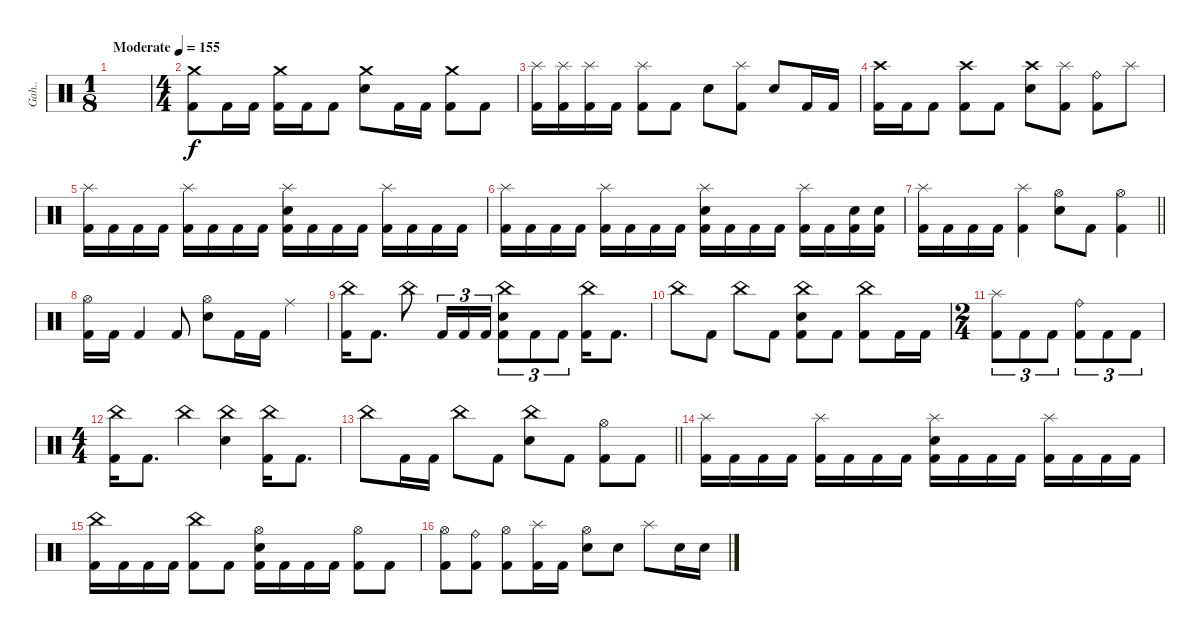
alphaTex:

\track ("Gah.." "Gah..") {instrument percussion}
\staff {score}
\articulation defaults
\ts (1 8)
\section ("" "")
\tempo (155 "Moderate")
\clef neutral
\ks c
|
\ts (4 4)
("Crash medium (hit)" "Kick (hit) 2").8 "Kick (hit) 2".16 "Kick (hit) 2".16 ("Crash medium (hit)" "Kick (hit) 2").16 "Kick (hit) 2".16 "Kick (hit) 2".8 ("Crash medium (hit)" "Electric Snare (hit)").8 "Kick (hit) 2".16 "Kick (hit) 2".16 ("Crash medium (hit)" "Kick (hit) 2").8 "Kick (hit) 2".8 |
("Splash (hit)" "Kick (hit) 2").16 ("Splash (hit)" "Kick (hit) 2").16 ("Splash (hit)" "Kick (hit) 2").16 "Kick (hit) 2".16 ("Splash (hit)" "Kick (hit) 2").8 "Kick (hit) 2".8 "Electric Snare (hit)".8 ("Splash (hit)" "Kick (hit) 2").8 "Electric Snare (hit)".8 "Kick (hit) 2".16 "Kick (hit) 2".16 |
("Crash high (hit)" "Kick (hit) 2").16 "Kick (hit) 2".16 "Kick (hit) 2".8 ("Crash high (hit)" "Kick (hit) 2").8 "Kick (hit) 2".8 ("Crash high (hit)" "Electric Snare (hit)").8 ("Splash (hit)" "Kick (hit) 2").8 ("Ride (bell)" "Kick (hit) 2").8 "Splash (hit)".8 |
("Splash (hit)" "Kick (hit) 2").16 "Kick (hit) 2".16 "Kick (hit) 2".16 "Kick (hit) 2".16 ("Splash (hit)" "Kick (hit) 2").16 "Kick (hit) 2".16 "Kick (hit) 2".16 "Kick (hit) 2".16 ("Splash (hit)" "Electric Snare (hit)" "Kick (hit) 2").16 "Kick (hit) 2".16 "Kick (hit) 2".16 "Kick (hit) 2".16 ("Splash (hit)" "Kick (hit) 2").16 "Kick (hit) 2".16 "Kick (hit) 2".16 "Kick (hit) 2".16 |
("Splash (hit)" "Kick (hit) 2").16 "Kick (hit) 2".16 "Kick (hit) 2".16 "Kick (hit) 2".16 ("Splash (hit)" "Kick (hit) 2").16 "Kick (hit) 2".16 "Kick (hit) 2".16 "Kick (hit) 2".16 ("Splash (hit)" "Electric Snare (hit)" "Kick (hit) 2").16 "Kick (hit) 2".16 "Kick (hit) 2".16 "Kick (hit) 2".16 ("Splash (hit)" "Kick (hit) 2").16 "Kick (hit) 2".16 ("Electric Snare (hit)" "Kick (hit) 2").16 ("Electric Snare (hit)" "Kick (hit) 2").16 |
\barLineRight lightlight
("Splash (hit)" "Kick (hit) 2").16 "Kick (hit) 2".16 "Kick (hit) 2".16 "Kick (hit) 2".16 ("Splash (hit)" "Kick (hit) 2").4 ("Hi-Hat (open)" "Electric Snare (hit)").8 "Kick (hit) 2".8 ("Hi-Hat (open)" "Kick (hit) 2").4 |
\section ("" "")
("Hi-Hat (open)" "Kick (hit) 2").16 "Kick (hit) 2".16 "Kick (hit) 2".4 "Kick (hit) 2".8 ("Hi-Hat (open)" "Electric Snare (hit)").8 "Kick (hit) 2".16 "Kick (hit) 2".16 "Ride (middle)".4 |
("China (hit)" "Kick (hit) 2").16 "Kick (hit) 2".8{d} "China (hit)".8 "Kick (hit) 2".16{tu (3 2)} "Kick (hit) 2".16{tu (3 2)} "Kick (hit) 2".16{tu (3 2)} ("China (hit)" "Electric Snare (hit)" "Kick (hit) 2").8{tu (3 2)} "Kick (hit) 2".8{tu (3 2)} "Kick (hit) 2".8{tu (3 2)} ("China (hit)" "Kick (hit) 2").16 "Kick (hit) 2".8{d} |
"China (hit)".8 "Kick (hit) 2".8 "China (hit)".8 "Kick (hit) 2".8 ("China (hit)" "Electric Snare (hit)" "Kick (hit) 2").8 "Kick (hit) 2".8 ("China (hit)" "Kick (hit) 2").8 "Kick (hit) 2".16 "Kick (hit) 2".16 |
\ts (2 4)
("Splash (hit)" "Kick (hit) 2").8{tu (3 2)} "Kick (hit) 2".8{tu (3 2)} "Kick (hit) 2".8{tu (3 2)} ("Ride (bell)" "Kick (hit) 2").8{tu (3 2)} "Kick (hit) 2".8{tu (3 2)} "Kick (hit) 2".8{tu (3 2)} |
\ts (4 4)
("China (hit)" "Kick (hit) 2").16 "Kick (hit) 2".8{d} "China (hit)".4 ("China (hit)" "Electric Snare (hit)").4 ("China (hit)" "Kick (hit) 2").16 "Kick (hit) 2".8{d} |
\barLineRight lightlight "China (hit)".8 "Kick (hit) 2".16 "Kick (hit) 2".16 "China (hit)".8 "Kick (hit) 2".8
("China (hit)" "Electric Snare (hit)").8 "Kick (hit) 2".8 ("Hi-Hat (open)" "Kick (hit) 2").8 "Kick (hit) 2".8 |
\section ("" "")
("Splash (hit)" "Kick (hit) 2").16 "Kick (hit) 2".16 "Kick (hit) 2".16 "Kick (hit) 2".16 ("Splash (hit)" "Kick (hit) 2").16 "Kick (hit) 2".16 "Kick (hit) 2".16 "Kick (hit) 2".16 ("Splash (hit)" "Electric Snare (hit)" "Kick (hit) 2").16 "Kick (hit) 2".16 "Kick (hit) 2".16 "Kick (hit) 2".16 ("Splash (hit)" "Kick (hit) 2").16 "Kick (hit) 2".16 "Kick (hit) 2".16 "Kick (hit) 2".16 |
("China (hit)" "Kick (hit) 2").16 "Kick (hit) 2".16 "Kick (hit) 2".16 "Kick (hit) 2".16 ("China (hit)" "Kick (hit) 2").8 "Kick (hit) 2".8 ("Hi-Hat (open)" "Electric Snare (hit)" "Kick (hit) 2").16 "Kick (hit) 2".16 "Kick (hit) 2".16 "Kick (hit) 2".16 ("Hi-Hat (open)" "Kick (hit) 2").8 "Kick (hit) 2".8 |
("Hi-Hat (open)" "Kick (hit) 2").8 ("Ride (bell)" "Kick (hit) 2").8 ("Hi-Hat (open)" "Kick (hit) 2").8 ("Splash (hit)" "Kick (hit) 2").16 "Kick (hit) 2".16 ("Hi-Hat (open)" "Electric Snare (hit)").8 "Electric Snare (hit)".8 "Splash (hit)".8 "Electric Snare (hit)".16 "Electric Snare (hit)".16
